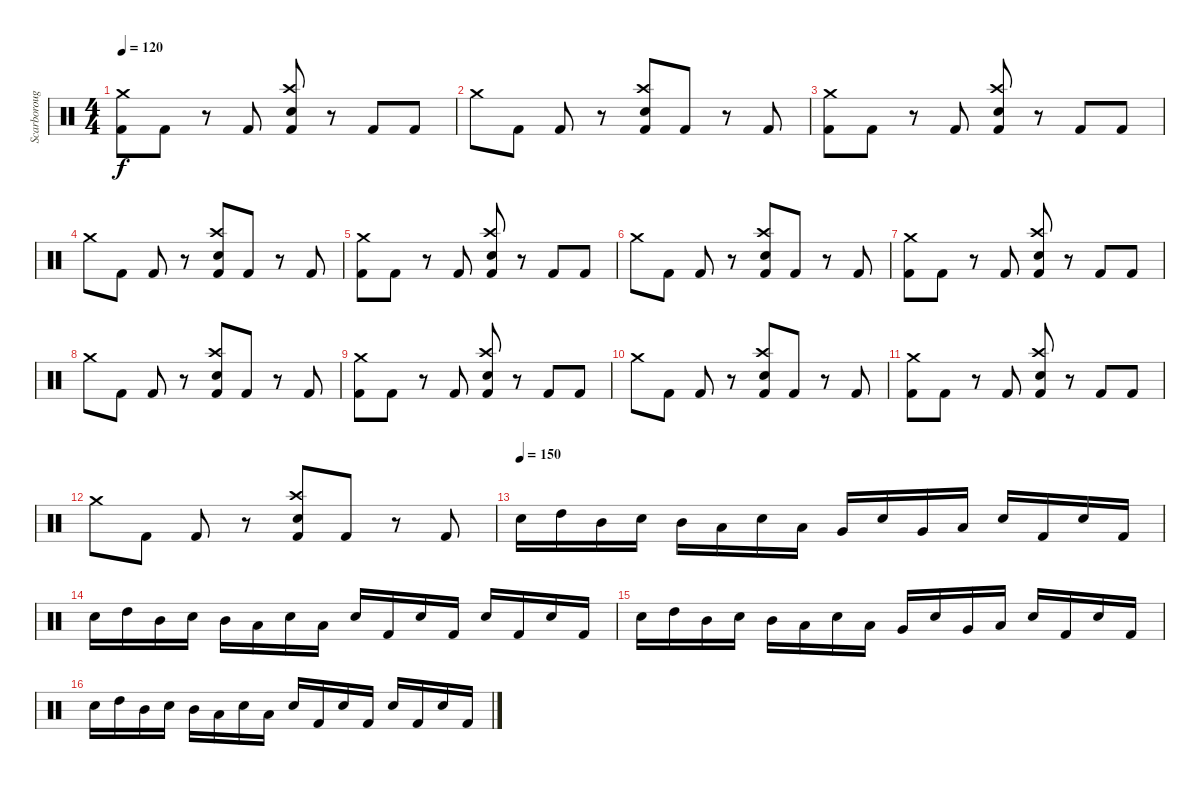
\track ("Scarborough" "Scarboroug") {instrument percussion}
\staff {score}
\articulation defaults
\ts (4 4)
\tempo 120
\clef neutral
\ks c
("Crash medium (hit)" "Kick (hit) 2").8{dy f} "Kick (hit) 2".8 r.8 "Kick (hit) 2".8 ("Crash high (hit)" "Kick (hit) 2" "Snare (hit) 2").8 r.8 "Kick (hit) 2".8 "Kick (hit) 2".8 |
"Crash medium (hit)".8 "Kick (hit) 2".8 "Kick (hit) 2".8 r.8 ("Crash high (hit)" "Kick (hit) 2" "Snare (hit) 2").8 "Kick (hit) 2".8 r.8 "Kick (hit) 2".8 |
("Crash medium (hit)" "Kick (hit) 2").8 "Kick (hit) 2".8 r.8 "Kick (hit) 2".8 ("Crash high (hit)" "Kick (hit) 2" "Snare (hit) 2").8 r.8 "Kick (hit) 2".8 "Kick (hit) 2".8 |
"Crash medium (hit)".8 "Kick (hit) 2".8 "Kick (hit) 2".8 r.8 ("Crash high (hit)" "Kick (hit) 2" "Snare (hit) 2").8 "Kick (hit) 2".8 r.8 "Kick (hit) 2".8 |
("Crash medium (hit)" "Kick (hit) 2").8 "Kick (hit) 2".8 r.8 "Kick (hit) 2".8 ("Crash high (hit)" "Kick (hit) 2" "Snare (hit) 2").8 r.8 "Kick (hit) 2".8 "Kick (hit) 2".8 |
"Crash medium (hit)".8 "Kick (hit) 2".8 "Kick (hit) 2".8 r.8 ("Crash high (hit)" "Kick (hit) 2" "Snare (hit) 2").8 "Kick (hit) 2".8 r.8 "Kick (hit) 2".8 |
("Crash medium (hit)" "Kick (hit) 2").8 "Kick (hit) 2".8 r.8 "Kick (hit) 2".8 ("Crash high (hit)" "Kick (hit) 2" "Snare (hit) 2").8 r.8 "Kick (hit) 2".8 "Kick (hit) 2".8 |
"Crash medium (hit)".8 "Kick (hit) 2".8 "Kick (hit) 2".8 r.8 ("Crash high (hit)" "Kick (hit) 2" "Snare (hit) 2").8 "Kick (hit) 2".8 r.8 "Kick (hit) 2".8 |
("Crash medium (hit)" "Kick (hit) 2").8 "Kick (hit) 2".8 r.8 "Kick (hit) 2".8 ("Crash high (hit)" "Kick (hit) 2" "Snare (hit) 2").8 r.8 "Kick (hit) 2".8 "Kick (hit) 2".8 |
"Crash medium (hit)".8 "Kick (hit) 2".8 "Kick (hit) 2".8 r.8 ("Crash high (hit)" "Kick (hit) 2" "Snare (hit) 2").8 "Kick (hit) 2".8 r.8 "Kick (hit) 2".8 |
("Crash medium (hit)" "Kick (hit) 2").8 "Kick (hit) 2".8 r.8 "Kick (hit) 2".8 ("Crash high (hit)" "Kick (hit) 2" "Snare (hit) 2").8 r.8 "Kick (hit) 2".8 "Kick (hit) 2".8 |
"Crash medium (hit)".8 "Kick (hit) 2".8 "Kick (hit) 2".8 r.8 ("Crash high (hit)" "Kick (hit) 2" "Snare (hit) 2").8 "Kick (hit) 2".8 r.8 "Kick (hit) 2".8 |
\tempo (150)
"Snare (hit) 2".16 "High Tom (hit)".16 "Mid Tom (hit)".16 "Snare (hit) 2".16 "Mid Tom (hit)".16 "Low Tom (hit)".16 "Snare (hit) 2".16 "Low Tom (hit)".16 "Very Low Tom (hit)".16 "Snare (hit) 2".16 "Very Low Tom (hit)".16 "Low Floor Tom (hit)".16 "Snare (hit) 2".16 "Kick (hit) 2".16 "Snare (hit) 2".16 "Kick (hit) 2".16 |
"Snare (hit) 2".16 "High Tom (hit)".16 "Mid Tom (hit)".16 "Snare (hit) 2".16 "Mid Tom (hit)".16 "Low Tom (hit)".16 "Snare (hit) 2".16 "Low Tom (hit)".16 "Snare (hit) 2".16 "Kick (hit) 2".16 "Snare (hit) 2".16 "Kick (hit) 2".16 "Snare (hit) 2".16 "Kick (hit) 2".16 "Snare (hit) 2".16 "Kick (hit) 2".16 |
"Snare (hit) 2".16 "High Tom (hit)".16 "Mid Tom (hit)".16 "Snare (hit) 2".16 "Mid Tom (hit)".16 "Low Tom (hit)".16 "Snare (hit) 2".16 "Low Tom (hit)".16 "Very Low Tom (hit)".16 "Snare (hit) 2".16 "Very Low Tom (hit)".16 "Low Floor Tom (hit)".16 "Snare (hit) 2".16 "Kick (hit) 2".16 "Snare (hit) 2".16 "Kick (hit) 2".16 |
"Snare (hit) 2".16 "High Tom (hit)".16 "Mid Tom (hit)".16 "Snare (hit) 2".16 "Mid Tom (hit)".16 "Low Tom (hit)".16 "Snare (hit) 2".16 "Low Tom (hit)".16 "Snare (hit) 2".16 "Kick (hit) 2".16 "Snare (hit) 2".16 "Kick (hit) 2".16 "Snare (hit) 2".16 "Kick (hit) 2".16 "Snare (hit) 2".16 "Kick (hit) 2".16
